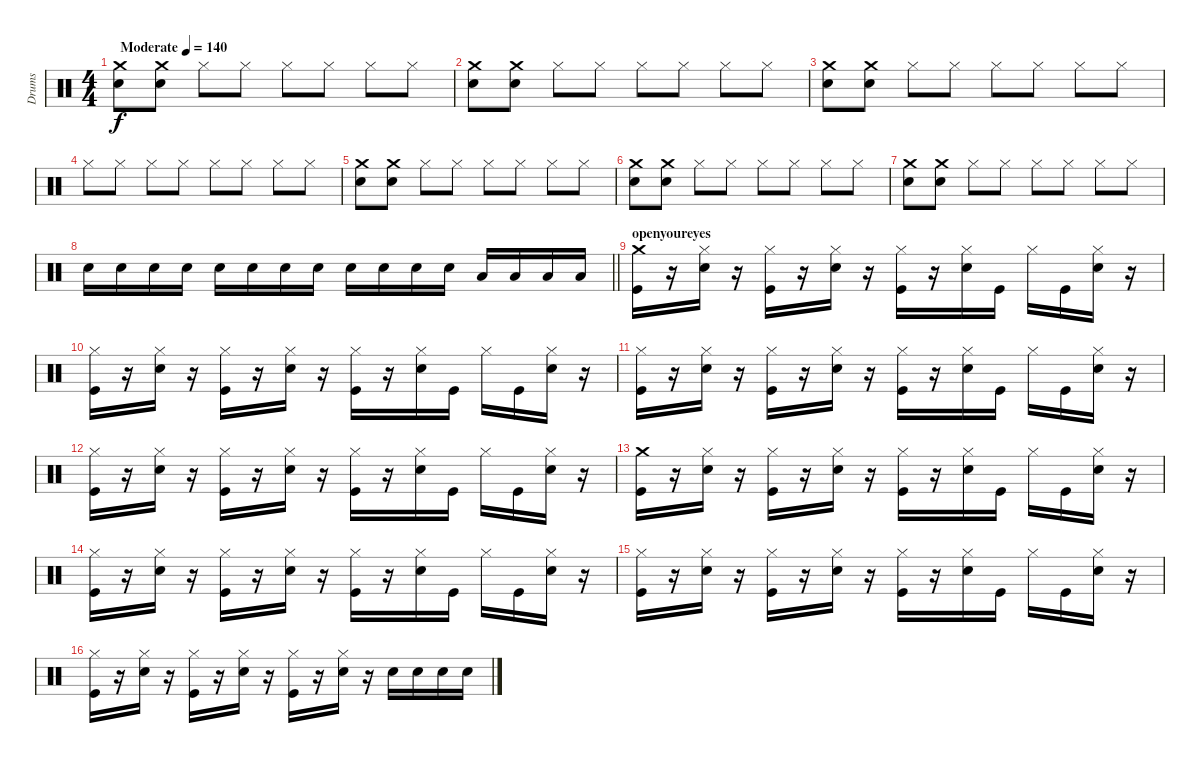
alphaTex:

\track ("Drums" "Drums") {instrument percussion}
\staff {score}
\articulation defaults
\ts (4 4)
\tempo (140 "Moderate")
\clef neutral
\ks c
("Crash medium (hit)" "Snare (hit) 2").8{dy f} ("Crash medium (hit)" "Snare (hit) 2").8 "Hi-Hat (closed)".8 "Hi-Hat (closed)".8 "Hi-Hat (closed)".8 "Hi-Hat (closed)".8 "Hi-Hat (closed)".8 "Hi-Hat (closed)".8 |
("Crash medium (hit)" "Snare (hit) 2").8 ("Crash medium (hit)" "Snare (hit) 2").8 "Hi-Hat (closed)".8 "Hi-Hat (closed)".8 "Hi-Hat (closed)".8 "Hi-Hat (closed)".8 "Hi-Hat (closed)".8 "Hi-Hat (closed)".8 |
("Crash medium (hit)" "Snare (hit) 2").8 ("Crash medium (hit)" "Snare (hit) 2").8 "Hi-Hat (closed)".8 "Hi-Hat (closed)".8 "Hi-Hat (closed)".8 "Hi-Hat (closed)".8 "Hi-Hat (closed)".8 "Hi-Hat (closed)".8 |
"Hi-Hat (closed)".8 "Hi-Hat (closed)".8 "Hi-Hat (closed)".8 "Hi-Hat (closed)".8 "Hi-Hat (closed)".8 "Hi-Hat (closed)".8 "Hi-Hat (closed)".8 "Hi-Hat (closed)".8 |
("Crash medium (hit)" "Snare (hit) 2").8 ("Crash medium (hit)" "Snare (hit) 2").8 "Hi-Hat (closed)".8 "Hi-Hat (closed)".8 "Hi-Hat (closed)".8 "Hi-Hat (closed)".8 "Hi-Hat (closed)".8 "Hi-Hat (closed)".8 |
("Crash medium (hit)" "Snare (hit) 2").8 ("Crash medium (hit)" "Snare (hit) 2").8 "Hi-Hat (closed)".8 "Hi-Hat (closed)".8 "Hi-Hat (closed)".8 "Hi-Hat (closed)".8 "Hi-Hat (closed)".8 "Hi-Hat (closed)".8 |
("Crash medium (hit)" "Snare (hit) 2").8 ("Crash medium (hit)" "Snare (hit) 2").8 "Hi-Hat (closed)".8 "Hi-Hat (closed)".8 "Hi-Hat (closed)".8 "Hi-Hat (closed)".8 "Hi-Hat (closed)".8 "Hi-Hat (closed)".8 |
\barLineRight lightlight "Snare (hit) 2".16 "Snare (hit) 2".16 "Snare (hit) 2".16 "Snare (hit) 2".16 "Snare (hit) 2".16 "Snare (hit) 2".16 "Snare (hit) 2".16 "Snare (hit) 2".16 "Snare (hit) 2".16 "Snare (hit) 2".16 "Snare (hit) 2".16 "Snare (hit) 2".16 "Low Tom (hit)".16 "Low Tom (hit)".16 "Low Tom (hit)".16 "Low Tom (hit)".16
|
\section ("" "openyoureyes")
("Crash medium (hit)" "Kick (hit)").16 r.16 ("Hi-Hat (closed)" "Snare (hit) 2").16 r.16 ("Hi-Hat (closed)" "Kick (hit)").16 r.16 ("Hi-Hat (closed)" "Snare (hit) 2").16 r.16 ("Hi-Hat (closed)" "Kick (hit)").16 r.16 ("Hi-Hat (closed)" "Snare (hit) 2").16 "Kick (hit)".16 "Hi-Hat (closed)".16 "Kick (hit)".16 ("Hi-Hat (closed)" "Snare (hit) 2").16 r.16 |
("Hi-Hat (closed)" "Kick (hit)").16 r.16 ("Hi-Hat (closed)" "Snare (hit) 2").16 r.16 ("Hi-Hat (closed)" "Kick (hit)").16 r.16 ("Hi-Hat (closed)" "Snare (hit) 2").16 r.16 ("Hi-Hat (closed)" "Kick (hit)").16 r.16 ("Hi-Hat (closed)" "Snare (hit) 2").16 "Kick (hit)".16 "Hi-Hat (closed)".16 "Kick (hit)".16 ("Hi-Hat (closed)" "Snare (hit) 2").16 r.16 |
("Hi-Hat (closed)" "Kick (hit)").16 r.16 ("Hi-Hat (closed)" "Snare (hit) 2").16 r.16 ("Hi-Hat (closed)" "Kick (hit)").16 r.16 ("Hi-Hat (closed)" "Snare (hit) 2").16 r.16 ("Hi-Hat (closed)" "Kick (hit)").16 r.16 ("Hi-Hat (closed)" "Snare (hit) 2").16 "Kick (hit)".16 "Hi-Hat (closed)".16 "Kick (hit)".16 ("Hi-Hat (closed)" "Snare (hit) 2").16 r.16 |
("Hi-Hat (closed)" "Kick (hit)").16 r.16 ("Hi-Hat (closed)" "Snare (hit) 2").16 r.16 ("Hi-Hat (closed)" "Kick (hit)").16 r.16 ("Hi-Hat (closed)" "Snare (hit) 2").16 r.16 ("Hi-Hat (closed)" "Kick (hit)").16 r.16 ("Hi-Hat (closed)" "Snare (hit) 2").16 "Kick (hit)".16 "Hi-Hat (closed)".16 "Kick (hit)".16 ("Hi-Hat (closed)" "Snare (hit) 2").16 r.16 |
("Crash medium (hit)" "Kick (hit)").16 r.16 ("Hi-Hat (closed)" "Snare (hit) 2").16 r.16 ("Hi-Hat (closed)" "Kick (hit)").16 r.16 ("Hi-Hat (closed)" "Snare (hit) 2").16 r.16 ("Hi-Hat (closed)" "Kick (hit)").16 r.16 ("Hi-Hat (closed)" "Snare (hit) 2").16 "Kick (hit)".16 "Hi-Hat (closed)".16 "Kick (hit)".16 ("Hi-Hat (closed)" "Snare (hit) 2").16 r.16 |
("Hi-Hat (closed)" "Kick (hit)").16 r.16 ("Hi-Hat (closed)" "Snare (hit) 2").16 r.16 ("Hi-Hat (closed)" "Kick (hit)").16 r.16 ("Hi-Hat (closed)" "Snare (hit) 2").16 r.16 ("Hi-Hat (closed)" "Kick (hit)").16 r.16 ("Hi-Hat (closed)" "Snare (hit) 2").16 "Kick (hit)".16 "Hi-Hat (closed)".16 "Kick (hit)".16 ("Hi-Hat (closed)" "Snare (hit) 2").16 r.16 |
("Hi-Hat (closed)" "Kick (hit)").16 r.16 ("Hi-Hat (closed)" "Snare (hit) 2").16 r.16 ("Hi-Hat (closed)" "Kick (hit)").16 r.16 ("Hi-Hat (closed)" "Snare (hit) 2").16 r.16 ("Hi-Hat (closed)" "Kick (hit)").16 r.16 ("Hi-Hat (closed)" "Snare (hit) 2").16 "Kick (hit)".16 "Hi-Hat (closed)".16 "Kick (hit)".16 ("Hi-Hat (closed)" "Snare (hit) 2").16 r.16 |
("Hi-Hat (closed)" "Kick (hit)").16 r.16 ("Hi-Hat (closed)" "Snare (hit) 2").16 r.16 ("Hi-Hat (closed)" "Kick (hit)").16 r.16 ("Hi-Hat (closed)" "Snare (hit) 2").16 r.16 ("Hi-Hat (closed)" "Kick (hit)").16 r.16 ("Hi-Hat (closed)" "Snare (hit) 2").16 r.16 "Snare (hit) 2".16 "Snare (hit) 2".16 "Snare (hit) 2".16 "Snare (hit) 2".16
